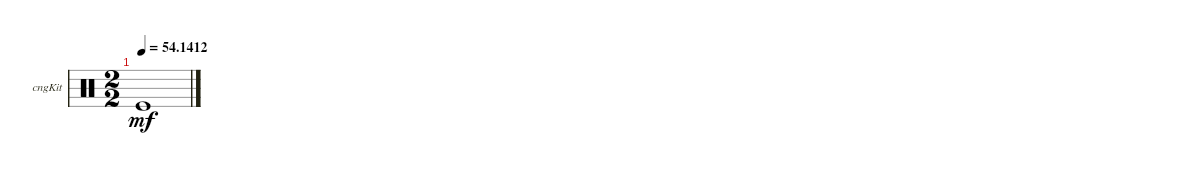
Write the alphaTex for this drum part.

\bracketExtendMode groupsimilarinstruments
\multiTrackTrackNamePolicy hidden
\firstSystemTrackNameOrientation horizontal
\otherSystemsTrackNameOrientation horizontal
\track ("Congas" "cngKit") {instrument percussion}
\staff {score}
\articulation defaults
\ts (2 2)
\tempo
54.1412
\accidentals auto
\clef neutral
\ottava regular
\simile none
\ks c "Kick (hit)".1{dy mf}
